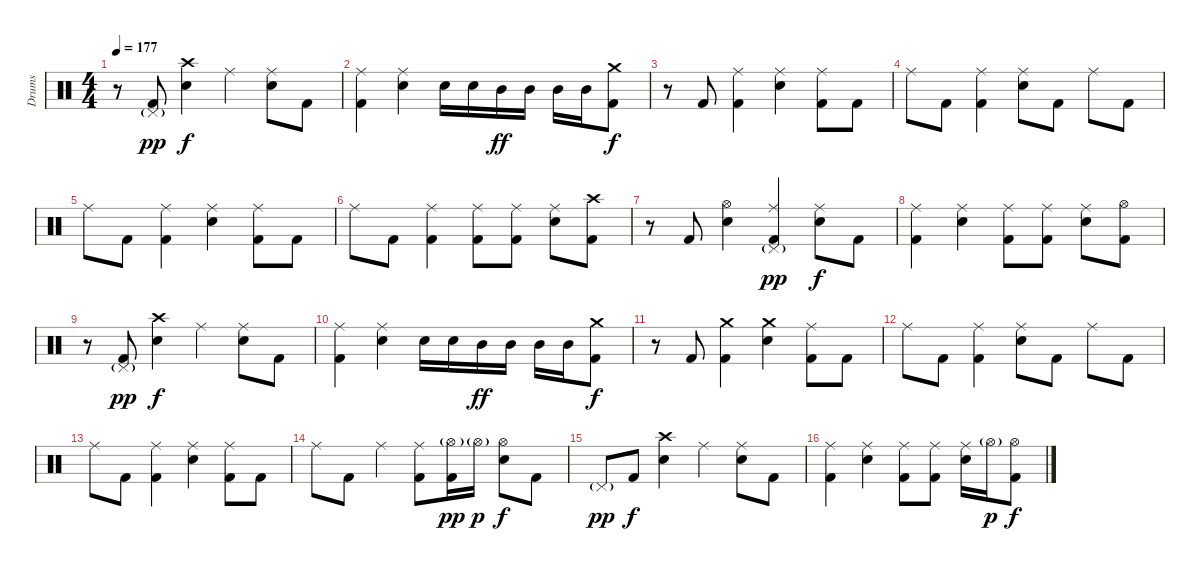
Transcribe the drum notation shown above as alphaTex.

\track ("Drums" "Drums") {instrument percussion}
\staff {score}
\articulation defaults
\ts (4 4)
\tempo 177
\clef neutral
\ks c
r.8{dy f} ("Pedal Hi-Hat (hit)"{g} "Kick (hit) 2").8{dy pp} ("Crash high (hit)" "Snare (hit) 2").4{dy f} "Ride (middle)".4 ("Ride (middle)" "Snare (hit) 2").8 "Kick (hit) 2".8 |
("Ride (middle)" "Kick (hit) 2").4 ("Ride (middle)" "Snare (hit) 2").4 "Snare (hit) 2".16 "Snare (hit) 2".16 "Mid Tom (hit)".16{dy ff} "Mid Tom (hit)".16 "Mid Tom (hit)".16 "Mid Tom (hit)".16 ("Crash medium (hit)" "Kick (hit) 2").8{dy f} |
r.8 "Kick (hit) 2".8 ("Ride (middle)" "Kick (hit) 2").4 ("Ride (middle)" "Snare (hit) 2").4 ("Ride (middle)" "Kick (hit) 2").8 "Kick (hit) 2".8 |
"Ride (middle)".8 "Kick (hit) 2".8 ("Ride (middle)" "Kick (hit) 2").4 ("Ride (middle)" "Snare (hit) 2").8 "Kick (hit) 2".8 "Ride (middle)".8 "Kick (hit) 2".8 |
"Ride (middle)".8 "Kick (hit) 2".8 ("Ride (middle)" "Kick (hit) 2").4 ("Ride (middle)" "Snare (hit) 2").4 ("Ride (middle)" "Kick (hit) 2").8 "Kick (hit) 2".8 |
"Ride (middle)".8 "Kick (hit) 2".8 ("Ride (middle)" "Kick (hit) 2").4 ("Ride (middle)" "Kick (hit) 2").8 ("Ride (middle)" "Kick (hit) 2").8 ("Ride (middle)" "Snare (hit) 2").8 ("Crash high (hit)" "Kick (hit) 2").8 |
r.8 "Kick (hit) 2".8 ("Hi-Hat (open)" "Snare (hit) 2").4 ("Ride (middle)" "Pedal Hi-Hat (hit)"{g} "Kick (hit) 2").4{dy pp} ("Ride (middle)" "Snare (hit) 2").8{dy f} "Kick (hit) 2".8 |
("Ride (middle)" "Kick (hit) 2").4 ("Ride (middle)" "Snare (hit) 2").4 ("Ride (middle)" "Kick (hit) 2").8 ("Ride (middle)" "Kick (hit) 2").8 ("Ride (middle)" "Snare (hit) 2").8 ("Hi-Hat (open)" "Kick (hit) 2").8 |
r.8 ("Pedal Hi-Hat (hit)"{g} "Kick (hit) 2").8{dy pp} ("Crash high (hit)" "Snare (hit) 2").4{dy f} "Ride (middle)".4 ("Ride (middle)" "Snare (hit) 2").8 "Kick (hit) 2".8 |
("Ride (middle)" "Kick (hit) 2").4 ("Ride (middle)" "Snare (hit) 2").4 "Snare (hit) 2".16 "Snare (hit) 2".16 "Mid Tom (hit)".16{dy ff} "Mid Tom (hit)".16 "Mid Tom (hit)".16 "Mid Tom (hit)".16 ("Crash medium (hit)" "Kick (hit) 2").8{dy f} |
r.8 "Kick (hit) 2".8 ("Crash medium (hit)" "Kick (hit) 2").4 ("Crash medium (hit)" "Snare (hit) 2").4 ("Ride (middle)" "Kick (hit) 2").8 "Kick (hit) 2".8 |
"Ride (middle)".8 "Kick (hit) 2".8 ("Ride (middle)" "Kick (hit) 2").4 ("Ride (middle)" "Snare (hit) 2").8 "Kick (hit) 2".8 "Ride (middle)".8 "Kick (hit) 2".8 |
"Ride (middle)".8 "Kick (hit) 2".8 ("Ride (middle)" "Kick (hit) 2").4 ("Ride (middle)" "Snare (hit) 2").4 ("Ride (middle)" "Kick (hit) 2").8 "Kick (hit) 2".8 |
"Ride (middle)".8 "Kick (hit) 2".8 "Ride (middle)".4 ("Ride (middle)" "Kick (hit) 2").8 ("Hi-Hat (open)"{g} "Kick (hit) 2").16{dy pp} "Hi-Hat (open)"{g}.16{dy p} ("Hi-Hat (open)" "Snare (hit) 2").8{dy f} "Kick (hit) 2".8 |
"Pedal Hi-Hat (hit)"{g}.8{dy pp} "Kick (hit) 2".8{dy f} ("Crash high (hit)" "Snare (hit) 2").4 "Ride (middle)".4 ("Ride (middle)" "Snare (hit) 2").8 "Kick (hit) 2".8 |
("Ride (middle)" "Kick (hit) 2").4 ("Ride (middle)" "Snare (hit) 2").4 ("Ride (middle)" "Kick (hit) 2").8 ("Ride (middle)" "Kick (hit) 2").8 ("Ride (middle)" "Snare (hit) 2").16 "Hi-Hat (open)"{g}.16{dy p} ("Hi-Hat (open)" "Kick (hit) 2").8{dy f}
